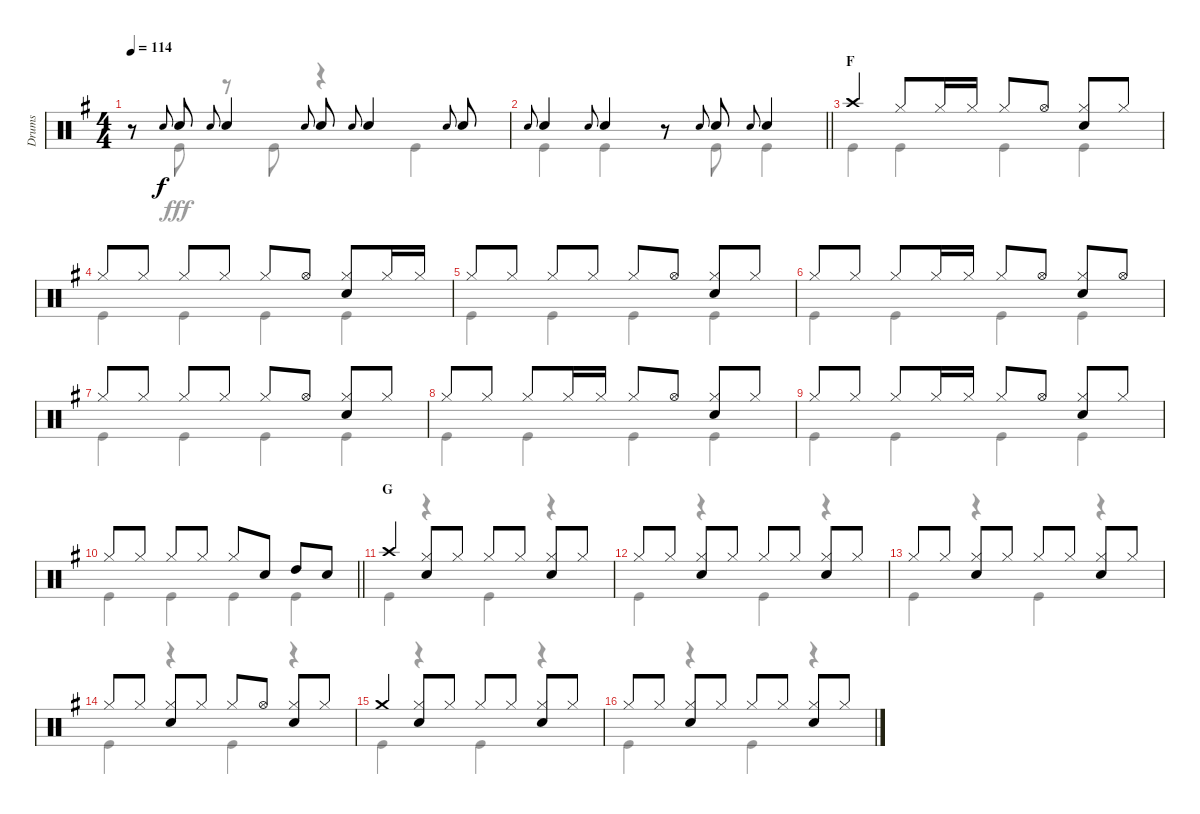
\track ("Drums" "Drums") {instrument percussion}
\staff {score}
\articulation defaults
\voice
\ts (4 4)
\tempo 114
\clef neutral
\ks g
r.8{dy f} "Snare (hit) 2".8{gr onbeat} "Snare (hit) 2".8 "Snare (hit) 2".8{gr onbeat} "Snare (hit) 2".4 "Snare (hit) 2".8{gr onbeat} "Snare (hit) 2".8 "Snare (hit) 2".8{gr onbeat} "Snare (hit) 2".4 "Snare (hit) 2".8{gr onbeat} "Snare (hit) 2".8 |
\barLineRight lightlight "Snare (hit) 2".8{gr onbeat} "Snare (hit) 2".4 "Snare (hit) 2".8{gr onbeat} "Snare (hit) 2".4
r.8 "Snare (hit) 2".8{gr onbeat} "Snare (hit) 2".8 "Snare (hit) 2".8{gr onbeat} "Snare (hit) 2".4 |
\section ("" "F")
"Crash high (hit)".4 "Hi-Hat (closed)".8 "Hi-Hat (closed)".16 "Hi-Hat (closed)".16 "Hi-Hat (closed)".8 "Hi-Hat (open)".8 ("Hi-Hat (closed)" "Snare (hit) 2").8 "Hi-Hat (closed)".8 |
"Hi-Hat (closed)".8 "Hi-Hat (closed)".8 "Hi-Hat (closed)".8 "Hi-Hat (closed)".8 "Hi-Hat (closed)".8 "Hi-Hat (open)".8 ("Hi-Hat (closed)" "Snare (hit) 2").8 "Hi-Hat (closed)".16 "Hi-Hat (closed)".16 |
"Hi-Hat (closed)".8 "Hi-Hat (closed)".8 "Hi-Hat (closed)".8 "Hi-Hat (closed)".8 "Hi-Hat (closed)".8 "Hi-Hat (open)".8 ("Hi-Hat (closed)" "Snare (hit) 2").8 "Hi-Hat (closed)".8 |
"Hi-Hat (closed)".8 "Hi-Hat (closed)".8 "Hi-Hat (closed)".8 "Hi-Hat (closed)".16 "Hi-Hat (closed)".16 "Hi-Hat (closed)".8 "Hi-Hat (open)".8 ("Hi-Hat (closed)" "Snare (hit) 2").8 "Hi-Hat (open)".8 |
"Hi-Hat (closed)".8 "Hi-Hat (closed)".8 "Hi-Hat (closed)".8 "Hi-Hat (closed)".8 "Hi-Hat (closed)".8 "Hi-Hat (open)".8 ("Hi-Hat (closed)" "Snare (hit) 2").8 "Hi-Hat (closed)".8 |
"Hi-Hat (closed)".8 "Hi-Hat (closed)".8 "Hi-Hat (closed)".8 "Hi-Hat (closed)".16 "Hi-Hat (closed)".16 "Hi-Hat (closed)".8 "Hi-Hat (open)".8 ("Hi-Hat (closed)" "Snare (hit) 2").8 "Hi-Hat (closed)".8 |
"Hi-Hat (closed)".8 "Hi-Hat (closed)".8 "Hi-Hat (closed)".8 "Hi-Hat (closed)".16 "Hi-Hat (closed)".16 "Hi-Hat (closed)".8 "Hi-Hat (open)".8 ("Hi-Hat (closed)" "Snare (hit) 2").8 "Hi-Hat (closed)".8 |
\barLineRight lightlight "Hi-Hat (closed)".8 "Hi-Hat (closed)".8 "Hi-Hat (closed)".8 "Hi-Hat (closed)".8 "Hi-Hat (closed)".8 "Snare (hit) 2".8 "High Tom (hit)".8 "Snare (hit) 2".8
|
\section ("" "G")
"Crash high (hit)".4 ("Hi-Hat (closed)" "Snare (hit) 2").8 "Hi-Hat (closed)".8 "Hi-Hat (closed)".8 "Hi-Hat (closed)".8 ("Hi-Hat (closed)" "Snare (hit) 2").8 "Hi-Hat (closed)".8 |
"Hi-Hat (closed)".8 "Hi-Hat (closed)".8 ("Hi-Hat (closed)" "Snare (hit) 2").8 "Hi-Hat (closed)".8 "Hi-Hat (closed)".8 "Hi-Hat (closed)".8 ("Hi-Hat (closed)" "Snare (hit) 2").8 "Hi-Hat (closed)".8 |
"Hi-Hat (closed)".8 "Hi-Hat (closed)".8 ("Hi-Hat (closed)" "Snare (hit) 2").8 "Hi-Hat (closed)".8 "Hi-Hat (closed)".8 "Hi-Hat (closed)".8 ("Hi-Hat (closed)" "Snare (hit) 2").8 "Hi-Hat (closed)".8 |
"Hi-Hat (closed)".8 "Hi-Hat (closed)".8 ("Hi-Hat (closed)" "Snare (hit) 2").8 "Hi-Hat (closed)".8 "Hi-Hat (closed)".8 "Hi-Hat (open)".8 ("Hi-Hat (closed)" "Snare (hit) 2").8 "Hi-Hat (closed)".8 |
"Crash medium (hit)".4 ("Hi-Hat (closed)" "Snare (hit) 2").8 "Hi-Hat (closed)".8 "Hi-Hat (closed)".8 "Hi-Hat (closed)".8 ("Hi-Hat (closed)" "Snare (hit) 2").8 "Hi-Hat (closed)".8 |
"Hi-Hat (closed)".8 "Hi-Hat (closed)".8 ("Hi-Hat (closed)" "Snare (hit) 2").8 "Hi-Hat (closed)".8 "Hi-Hat (closed)".8 "Hi-Hat (closed)".8 ("Hi-Hat (closed)" "Snare (hit) 2").8 "Hi-Hat (closed)".8
\voice
\clef neutral
\ottava regular
\simile none
\ks g
r.8{dy fff} "Kick (hit)".8 r.8 "Kick (hit)".8 r.4 "Kick (hit)".4 |
\barLineRight lightlight "Kick (hit)".4 "Kick (hit)".4
r.8 "Kick (hit)".8 "Kick (hit)".4 |
"Kick (hit)".4 "Kick (hit)".4 "Kick (hit)".4 "Kick (hit)".4 |
"Kick (hit)".4 "Kick (hit)".4 "Kick (hit)".4 "Kick (hit)".4 |
"Kick (hit)".4 "Kick (hit)".4 "Kick (hit)".4 "Kick (hit)".4 |
"Kick (hit)".4 "Kick (hit)".4 "Kick (hit)".4 "Kick (hit)".4 |
"Kick (hit)".4 "Kick (hit)".4 "Kick (hit)".4 "Kick (hit)".4 |
"Kick (hit)".4 "Kick (hit)".4 "Kick (hit)".4 "Kick (hit)".4 |
"Kick (hit)".4 "Kick (hit)".4 "Kick (hit)".4 "Kick (hit)".4 |
\barLineRight lightlight "Kick (hit)".4 "Kick (hit)".4 "Kick (hit)".4 "Kick (hit)".4
|
"Kick (hit)".4 r.4 "Kick (hit)".4 r.4 |
"Kick (hit)".4 r.4 "Kick (hit)".4 r.4 |
"Kick (hit)".4 r.4 "Kick (hit)".4 r.4 |
"Kick (hit)".4 r.4 "Kick (hit)".4 r.4 |
"Kick (hit)".4 r.4 "Kick (hit)".4 r.4 |
"Kick (hit)".4 r.4 "Kick (hit)".4 r.4
